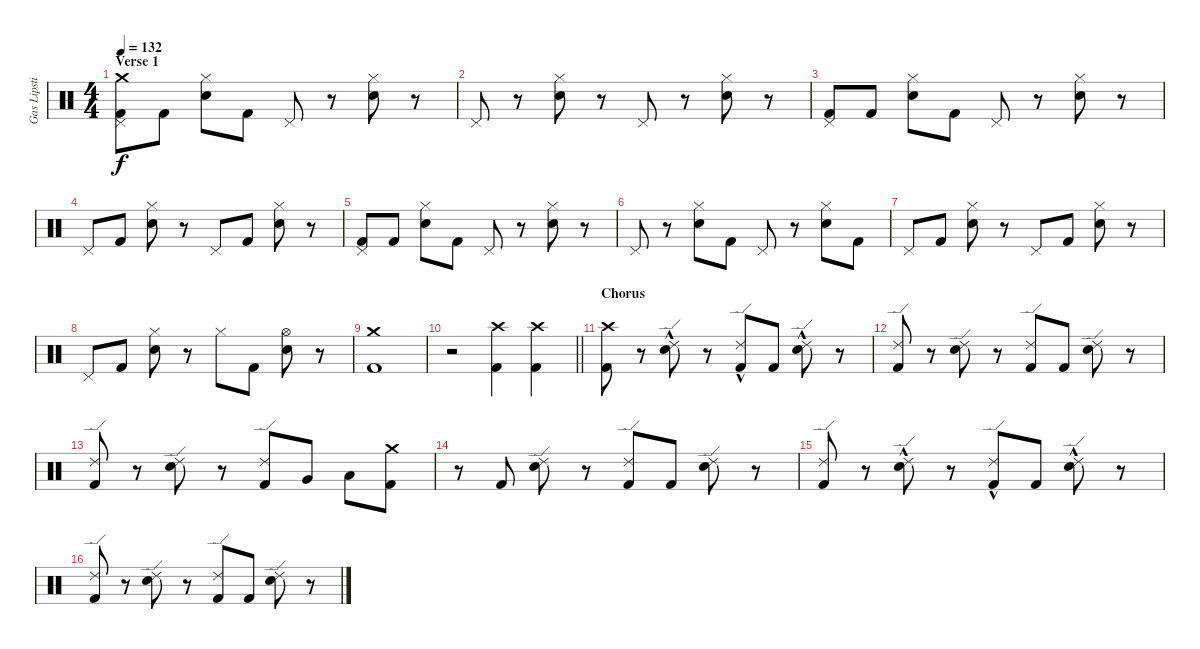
\track ("Gas Lipstick (Drums)" "Gas Lipsti") {instrument percussion}
\staff {score}
\articulation defaults
\ts (4 4)
\section ("" "Verse 1")
\tempo 132
\clef neutral
\ks c
("Crash medium (hit)" "Pedal Hi-Hat (hit)" "Kick (hit) 2").8{dy f} "Kick (hit) 2".8 ("Hi-Hat (closed)" "Snare (hit) 2").8 "Kick (hit) 2".8 "Pedal Hi-Hat (hit)".8 r.8 ("Hi-Hat (closed)" "Snare (hit) 2").8 r.8 |
"Pedal Hi-Hat (hit)".8 r.8 ("Hi-Hat (closed)" "Snare (hit) 2").8 r.8 "Pedal Hi-Hat (hit)".8 r.8 ("Hi-Hat (closed)" "Snare (hit) 2").8 r.8 |
("Pedal Hi-Hat (hit)" "Kick (hit) 2").8 "Kick (hit) 2".8 ("Hi-Hat (closed)" "Snare (hit) 2").8 "Kick (hit) 2".8 "Pedal Hi-Hat (hit)".8 r.8 ("Hi-Hat (closed)" "Snare (hit) 2").8 r.8 |
"Pedal Hi-Hat (hit)".8 "Kick (hit) 2".8 ("Hi-Hat (closed)" "Snare (hit) 2").8 r.8 "Pedal Hi-Hat (hit)".8 "Kick (hit) 2".8 ("Hi-Hat (closed)" "Snare (hit) 2").8 r.8 |
("Pedal Hi-Hat (hit)" "Kick (hit) 2").8 "Kick (hit) 2".8 ("Hi-Hat (closed)" "Snare (hit) 2").8 "Kick (hit) 2".8 "Pedal Hi-Hat (hit)".8 r.8 ("Hi-Hat (closed)" "Snare (hit) 2").8 r.8 |
"Pedal Hi-Hat (hit)".8 r.8 ("Hi-Hat (closed)" "Snare (hit) 2").8 "Kick (hit) 2".8 "Pedal Hi-Hat (hit)".8 r.8 ("Hi-Hat (closed)" "Snare (hit) 2").8 "Kick (hit) 2".8 |
"Pedal Hi-Hat (hit)".8 "Kick (hit) 2".8 ("Hi-Hat (closed)" "Snare (hit) 2").8 r.8 "Pedal Hi-Hat (hit)".8 "Kick (hit) 2".8 ("Hi-Hat (closed)" "Snare (hit) 2").8 r.8 |
"Pedal Hi-Hat (hit)".8 "Kick (hit) 2".8 ("Hi-Hat (closed)" "Snare (hit) 2").8 r.8 "Hi-Hat (closed)".8 "Kick (hit) 2".8 ("Hi-Hat (open)" "Snare (hit) 2").8 r.8 |
("Crash medium (hit)" "Kick (hit) 2").1 |
\barLineRight lightlight
r.2 ("Crash high (hit)" "Kick (hit) 2").4 ("Crash high (hit)" "Kick (hit) 2").4 |
\section ("" "Chorus")
("Crash high (hit)" "Kick (hit) 2").8 r.8 ("Ride (edge) 2"{hac} "Snare (hit) 2").8 r.8 ("Ride (edge) 2"{hac} "Kick (hit) 2").8 "Kick (hit) 2".8 ("Ride (edge) 2"{hac} "Snare (hit) 2").8 r.8 |
("Ride (edge) 2" "Kick (hit) 2").8 r.8 ("Ride (edge) 2" "Snare (hit) 2").8 r.8 ("Ride (edge) 2" "Kick (hit) 2").8 "Kick (hit) 2".8 ("Ride (edge) 2" "Snare (hit) 2").8 r.8 |
("Ride (edge) 2" "Kick (hit) 2").8 r.8 ("Ride (edge) 2" "Snare (hit) 2").8 r.8 ("Ride (edge) 2" "Kick (hit) 2").8 "Very Low Tom (hit)".8 "Low Floor Tom (hit)".8 ("Crash medium (hit)" "Kick (hit) 2").8 |
r.8 "Kick (hit) 2".8 ("Ride (edge) 2" "Snare (hit) 2").8 r.8 ("Ride (edge) 2" "Kick (hit) 2").8 "Kick (hit) 2".8 ("Ride (edge) 2" "Snare (hit) 2").8 r.8 |
("Ride (edge) 2" "Kick (hit) 2").8 r.8 ("Ride (edge) 2"{hac} "Snare (hit) 2").8 r.8 ("Ride (edge) 2"{hac} "Kick (hit) 2").8 "Kick (hit) 2".8 ("Ride (edge) 2"{hac} "Snare (hit) 2").8 r.8 |
("Ride (edge) 2" "Kick (hit) 2").8 r.8 ("Ride (edge) 2" "Snare (hit) 2").8 r.8 ("Ride (edge) 2" "Kick (hit) 2").8 "Kick (hit) 2".8 ("Ride (edge) 2" "Snare (hit) 2").8 r.8
